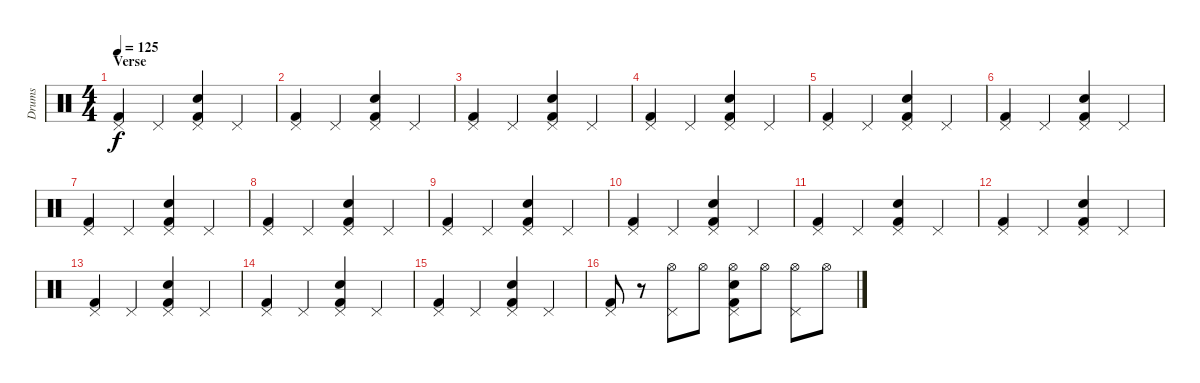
\track ("Drums" "Drums") {instrument percussion}
\staff {score}
\articulation defaults
\ts (4 4)
\section ("" "Verse")
\tempo 125
\clef neutral
\ks c
("Pedal Hi-Hat (hit)" "Kick (hit) 2").4{dy f} "Pedal Hi-Hat (hit)".4 ("Pedal Hi-Hat (hit)" "Electric Snare (hit)" "Kick (hit) 2").4 "Pedal Hi-Hat (hit)".4 |
("Pedal Hi-Hat (hit)" "Kick (hit) 2").4 "Pedal Hi-Hat (hit)".4 ("Pedal Hi-Hat (hit)" "Electric Snare (hit)" "Kick (hit) 2").4 "Pedal Hi-Hat (hit)".4 |
("Pedal Hi-Hat (hit)" "Kick (hit) 2").4 "Pedal Hi-Hat (hit)".4 ("Pedal Hi-Hat (hit)" "Electric Snare (hit)" "Kick (hit) 2").4 "Pedal Hi-Hat (hit)".4 |
("Pedal Hi-Hat (hit)" "Kick (hit) 2").4 "Pedal Hi-Hat (hit)".4 ("Pedal Hi-Hat (hit)" "Electric Snare (hit)" "Kick (hit) 2").4 "Pedal Hi-Hat (hit)".4 |
("Pedal Hi-Hat (hit)" "Kick (hit) 2").4 "Pedal Hi-Hat (hit)".4 ("Pedal Hi-Hat (hit)" "Electric Snare (hit)" "Kick (hit) 2").4 "Pedal Hi-Hat (hit)".4 |
("Pedal Hi-Hat (hit)" "Kick (hit) 2").4 "Pedal Hi-Hat (hit)".4 ("Pedal Hi-Hat (hit)" "Electric Snare (hit)" "Kick (hit) 2").4 "Pedal Hi-Hat (hit)".4 |
("Pedal Hi-Hat (hit)" "Kick (hit) 2").4 "Pedal Hi-Hat (hit)".4 ("Pedal Hi-Hat (hit)" "Electric Snare (hit)" "Kick (hit) 2").4 "Pedal Hi-Hat (hit)".4 |
("Pedal Hi-Hat (hit)" "Kick (hit) 2").4 "Pedal Hi-Hat (hit)".4 ("Pedal Hi-Hat (hit)" "Electric Snare (hit)" "Kick (hit) 2").4 "Pedal Hi-Hat (hit)".4 |
("Pedal Hi-Hat (hit)" "Kick (hit) 2").4 "Pedal Hi-Hat (hit)".4 ("Pedal Hi-Hat (hit)" "Electric Snare (hit)" "Kick (hit) 2").4 "Pedal Hi-Hat (hit)".4 |
("Pedal Hi-Hat (hit)" "Kick (hit) 2").4 "Pedal Hi-Hat (hit)".4 ("Pedal Hi-Hat (hit)" "Electric Snare (hit)" "Kick (hit) 2").4 "Pedal Hi-Hat (hit)".4 |
("Pedal Hi-Hat (hit)" "Kick (hit) 2").4 "Pedal Hi-Hat (hit)".4 ("Pedal Hi-Hat (hit)" "Electric Snare (hit)" "Kick (hit) 2").4 "Pedal Hi-Hat (hit)".4 |
("Pedal Hi-Hat (hit)" "Kick (hit) 2").4 "Pedal Hi-Hat (hit)".4 ("Pedal Hi-Hat (hit)" "Electric Snare (hit)" "Kick (hit) 2").4 "Pedal Hi-Hat (hit)".4 |
("Pedal Hi-Hat (hit)" "Kick (hit) 2").4 "Pedal Hi-Hat (hit)".4 ("Pedal Hi-Hat (hit)" "Electric Snare (hit)" "Kick (hit) 2").4 "Pedal Hi-Hat (hit)".4 |
("Pedal Hi-Hat (hit)" "Kick (hit) 2").4 "Pedal Hi-Hat (hit)".4 ("Pedal Hi-Hat (hit)" "Electric Snare (hit)" "Kick (hit) 2").4 "Pedal Hi-Hat (hit)".4 |
("Pedal Hi-Hat (hit)" "Kick (hit) 2").4 "Pedal Hi-Hat (hit)".4 ("Pedal Hi-Hat (hit)" "Electric Snare (hit)" "Kick (hit) 2").4 "Pedal Hi-Hat (hit)".4 |
("Pedal Hi-Hat (hit)" "Kick (hit) 2").8 r.8 ("Hi-Hat (open)" "Pedal Hi-Hat (hit)").8 "Hi-Hat (open)".8 ("Hi-Hat (open)" "Pedal Hi-Hat (hit)" "Electric Snare (hit)" "Kick (hit) 2").8 "Hi-Hat (open)".8 ("Hi-Hat (open)" "Pedal Hi-Hat (hit)").8 "Hi-Hat (open)".8
